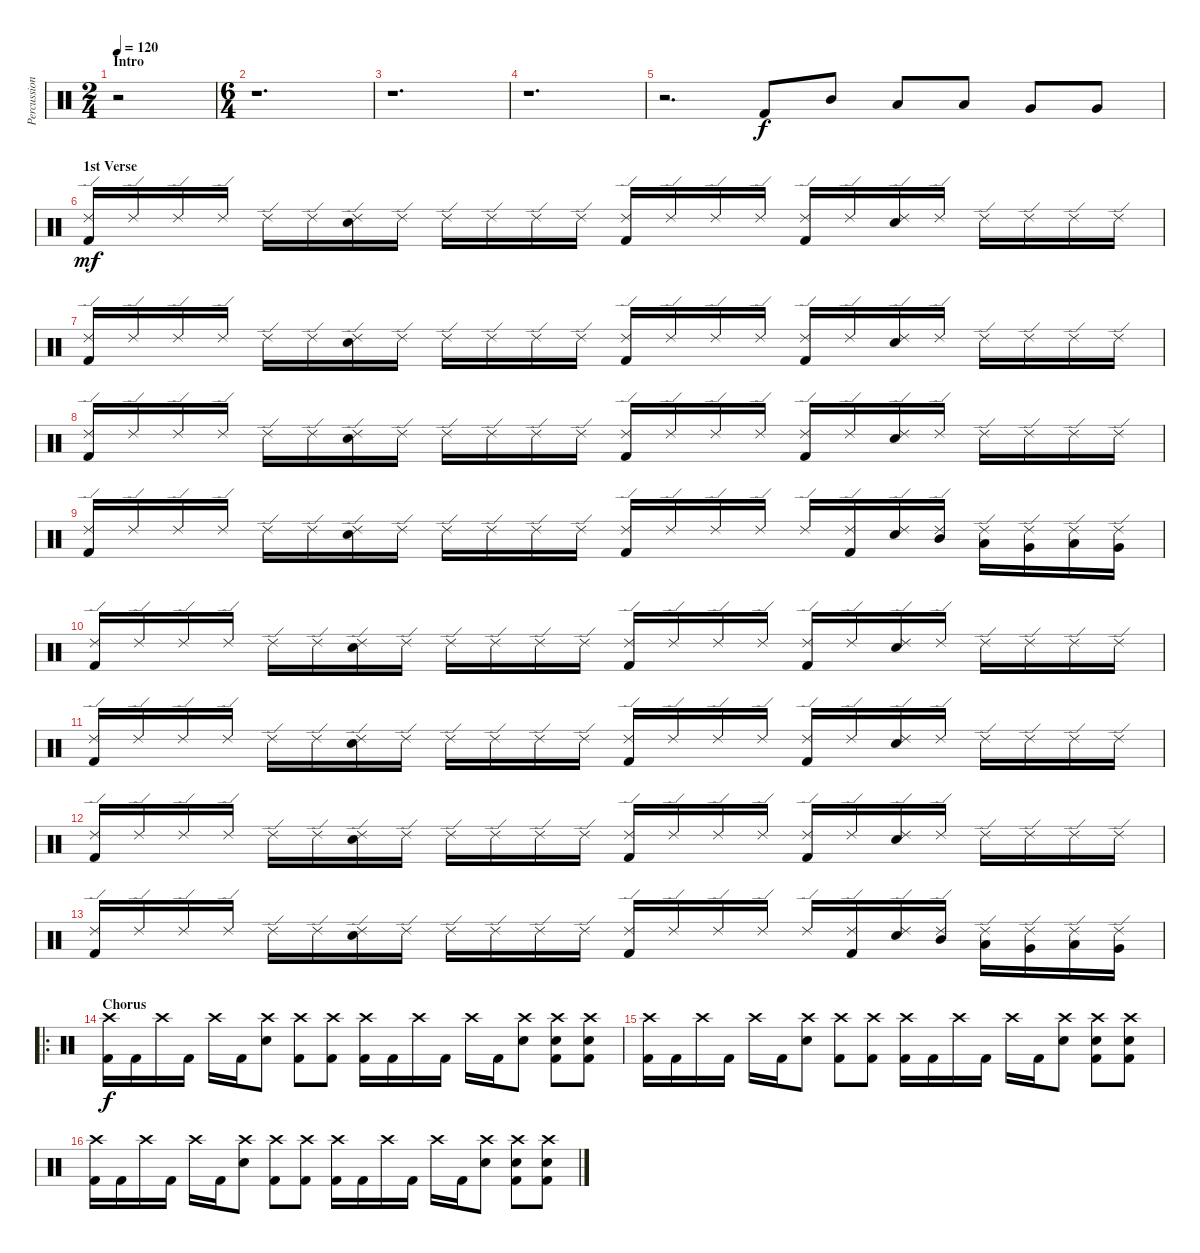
\track ("Percussion" "Percussion") {instrument percussion}
\staff {score}
\articulation defaults
\ts (2 4)
\section ("" "Intro")
\tempo 120
\clef neutral
\ks c
r.2{dy f} |
\ts (6 4)
r.1{d} |
r.1{d} |
r.1{d} |
r.2{d} "Kick (hit) 2".8 "Mid Tom (hit)".8 "Low Tom (hit)".8 "Low Tom (hit)".8 "Very Low Tom (hit)".8 "Very Low Tom (hit)".8 |
\section ("" "1st Verse")
("Ride (edge) 2" "Kick (hit) 2").16{dy mf} "Ride (edge) 2".16 "Ride (edge) 2".16 "Ride (edge) 2".16 "Ride (edge) 2".16 "Ride (edge) 2".16 ("Ride (edge) 2" "Snare (hit) 2").16 "Ride (edge) 2".16 "Ride (edge) 2".16 "Ride (edge) 2".16 "Ride (edge) 2".16 "Ride (edge) 2".16 ("Ride (edge) 2" "Kick (hit) 2").16 "Ride (edge) 2".16 "Ride (edge) 2".16 "Ride (edge) 2".16 ("Ride (edge) 2" "Kick (hit) 2").16 "Ride (edge) 2".16 ("Ride (edge) 2" "Snare (hit) 2").16 "Ride (edge) 2".16 "Ride (edge) 2".16 "Ride (edge) 2".16 "Ride (edge) 2".16 "Ride (edge) 2".16 |
("Ride (edge) 2" "Kick (hit) 2").16 "Ride (edge) 2".16 "Ride (edge) 2".16 "Ride (edge) 2".16 "Ride (edge) 2".16 "Ride (edge) 2".16 ("Ride (edge) 2" "Snare (hit) 2").16 "Ride (edge) 2".16 "Ride (edge) 2".16 "Ride (edge) 2".16 "Ride (edge) 2".16 "Ride (edge) 2".16 ("Ride (edge) 2" "Kick (hit) 2").16 "Ride (edge) 2".16 "Ride (edge) 2".16 "Ride (edge) 2".16 ("Ride (edge) 2" "Kick (hit) 2").16 "Ride (edge) 2".16 ("Ride (edge) 2" "Snare (hit) 2").16 "Ride (edge) 2".16 "Ride (edge) 2".16 "Ride (edge) 2".16 "Ride (edge) 2".16 "Ride (edge) 2".16 |
("Ride (edge) 2" "Kick (hit) 2").16 "Ride (edge) 2".16 "Ride (edge) 2".16 "Ride (edge) 2".16 "Ride (edge) 2".16 "Ride (edge) 2".16 ("Ride (edge) 2" "Snare (hit) 2").16 "Ride (edge) 2".16 "Ride (edge) 2".16 "Ride (edge) 2".16 "Ride (edge) 2".16 "Ride (edge) 2".16 ("Ride (edge) 2" "Kick (hit) 2").16 "Ride (edge) 2".16 "Ride (edge) 2".16 "Ride (edge) 2".16 ("Ride (edge) 2" "Kick (hit) 2").16 "Ride (edge) 2".16 ("Ride (edge) 2" "Snare (hit) 2").16 "Ride (edge) 2".16 "Ride (edge) 2".16 "Ride (edge) 2".16 "Ride (edge) 2".16 "Ride (edge) 2".16 |
("Ride (edge) 2" "Kick (hit) 2").16 "Ride (edge) 2".16 "Ride (edge) 2".16 "Ride (edge) 2".16 "Ride (edge) 2".16 "Ride (edge) 2".16 ("Ride (edge) 2" "Snare (hit) 2").16 "Ride (edge) 2".16 "Ride (edge) 2".16 "Ride (edge) 2".16 "Ride (edge) 2".16 "Ride (edge) 2".16 ("Ride (edge) 2" "Kick (hit) 2").16 "Ride (edge) 2".16 "Ride (edge) 2".16 "Ride (edge) 2".16 "Ride (edge) 2".16 ("Ride (edge) 2" "Kick (hit) 2").16 ("Ride (edge) 2" "Snare (hit) 2").16 ("Ride (edge) 2" "Mid Tom (hit)").16 ("Ride (edge) 2" "Low Tom (hit)").16 ("Ride (edge) 2" "Very Low Tom (hit)").16 ("Ride (edge) 2" "Low Tom (hit)").16 ("Ride (edge) 2" "Very Low Tom (hit)").16 |
("Ride (edge) 2" "Kick (hit) 2").16 "Ride (edge) 2".16 "Ride (edge) 2".16 "Ride (edge) 2".16 "Ride (edge) 2".16 "Ride (edge) 2".16 ("Ride (edge) 2" "Snare (hit) 2").16 "Ride (edge) 2".16 "Ride (edge) 2".16 "Ride (edge) 2".16 "Ride (edge) 2".16 "Ride (edge) 2".16 ("Ride (edge) 2" "Kick (hit) 2").16 "Ride (edge) 2".16 "Ride (edge) 2".16 "Ride (edge) 2".16 ("Ride (edge) 2" "Kick (hit) 2").16 "Ride (edge) 2".16 ("Ride (edge) 2" "Snare (hit) 2").16 "Ride (edge) 2".16 "Ride (edge) 2".16 "Ride (edge) 2".16 "Ride (edge) 2".16 "Ride (edge) 2".16 |
("Ride (edge) 2" "Kick (hit) 2").16 "Ride (edge) 2".16 "Ride (edge) 2".16 "Ride (edge) 2".16 "Ride (edge) 2".16 "Ride (edge) 2".16 ("Ride (edge) 2" "Snare (hit) 2").16 "Ride (edge) 2".16 "Ride (edge) 2".16 "Ride (edge) 2".16 "Ride (edge) 2".16 "Ride (edge) 2".16 ("Ride (edge) 2" "Kick (hit) 2").16 "Ride (edge) 2".16 "Ride (edge) 2".16 "Ride (edge) 2".16 ("Ride (edge) 2" "Kick (hit) 2").16 "Ride (edge) 2".16 ("Ride (edge) 2" "Snare (hit) 2").16 "Ride (edge) 2".16 "Ride (edge) 2".16 "Ride (edge) 2".16 "Ride (edge) 2".16 "Ride (edge) 2".16 |
("Ride (edge) 2" "Kick (hit) 2").16 "Ride (edge) 2".16 "Ride (edge) 2".16 "Ride (edge) 2".16 "Ride (edge) 2".16 "Ride (edge) 2".16 ("Ride (edge) 2" "Snare (hit) 2").16 "Ride (edge) 2".16 "Ride (edge) 2".16 "Ride (edge) 2".16 "Ride (edge) 2".16 "Ride (edge) 2".16 ("Ride (edge) 2" "Kick (hit) 2").16 "Ride (edge) 2".16 "Ride (edge) 2".16 "Ride (edge) 2".16 ("Ride (edge) 2" "Kick (hit) 2").16 "Ride (edge) 2".16 ("Ride (edge) 2" "Snare (hit) 2").16 "Ride (edge) 2".16 "Ride (edge) 2".16 "Ride (edge) 2".16 "Ride (edge) 2".16 "Ride (edge) 2".16 |
("Ride (edge) 2" "Kick (hit) 2").16 "Ride (edge) 2".16 "Ride (edge) 2".16 "Ride (edge) 2".16 "Ride (edge) 2".16 "Ride (edge) 2".16 ("Ride (edge) 2" "Snare (hit) 2").16 "Ride (edge) 2".16 "Ride (edge) 2".16 "Ride (edge) 2".16 "Ride (edge) 2".16 "Ride (edge) 2".16 ("Ride (edge) 2" "Kick (hit) 2").16 "Ride (edge) 2".16 "Ride (edge) 2".16 "Ride (edge) 2".16 "Ride (edge) 2".16 ("Ride (edge) 2" "Kick (hit) 2").16 ("Ride (edge) 2" "Snare (hit) 2").16 ("Ride (edge) 2" "Mid Tom (hit)").16 ("Ride (edge) 2" "Low Tom (hit)").16 ("Ride (edge) 2" "Very Low Tom (hit)").16 ("Ride (edge) 2" "Low Tom (hit)").16 ("Ride (edge) 2" "Very Low Tom (hit)").16 |
\ro
\section ("" "Chorus")
("Crash high (hit)" "Kick (hit) 2").16{dy f} "Kick (hit) 2".16 "Crash high (hit)".16 "Kick (hit) 2".16 "Crash high (hit)".16 "Kick (hit) 2".16 ("Crash high (hit)" "Snare (hit) 2").8 ("Crash high (hit)" "Kick (hit) 2").8 ("Crash high (hit)" "Kick (hit) 2").8 ("Crash high (hit)" "Kick (hit) 2").16 "Kick (hit) 2".16 "Crash high (hit)".16 "Kick (hit) 2".16 "Crash high (hit)".16 "Kick (hit) 2".16 ("Crash high (hit)" "Snare (hit) 2").8 ("Crash high (hit)" "Snare (hit) 2" "Kick (hit) 2").8 ("Crash high (hit)" "Snare (hit) 2" "Kick (hit) 2").8 |
("Crash high (hit)" "Kick (hit) 2").16 "Kick (hit) 2".16 "Crash high (hit)".16 "Kick (hit) 2".16 "Crash high (hit)".16 "Kick (hit) 2".16 ("Crash high (hit)" "Snare (hit) 2").8 ("Crash high (hit)" "Kick (hit) 2").8 ("Crash high (hit)" "Kick (hit) 2").8 ("Crash high (hit)" "Kick (hit) 2").16 "Kick (hit) 2".16 "Crash high (hit)".16 "Kick (hit) 2".16 "Crash high (hit)".16 "Kick (hit) 2".16 ("Crash high (hit)" "Snare (hit) 2").8 ("Crash high (hit)" "Snare (hit) 2" "Kick (hit) 2").8 ("Crash high (hit)" "Snare (hit) 2" "Kick (hit) 2").8 |
("Crash high (hit)" "Kick (hit) 2").16 "Kick (hit) 2".16 "Crash high (hit)".16 "Kick (hit) 2".16 "Crash high (hit)".16 "Kick (hit) 2".16 ("Crash high (hit)" "Snare (hit) 2").8 ("Crash high (hit)" "Kick (hit) 2").8 ("Crash high (hit)" "Kick (hit) 2").8 ("Crash high (hit)" "Kick (hit) 2").16 "Kick (hit) 2".16 "Crash high (hit)".16 "Kick (hit) 2".16 "Crash high (hit)".16 "Kick (hit) 2".16 ("Crash high (hit)" "Snare (hit) 2").8 ("Crash high (hit)" "Snare (hit) 2" "Kick (hit) 2").8 ("Crash high (hit)" "Snare (hit) 2" "Kick (hit) 2").8
